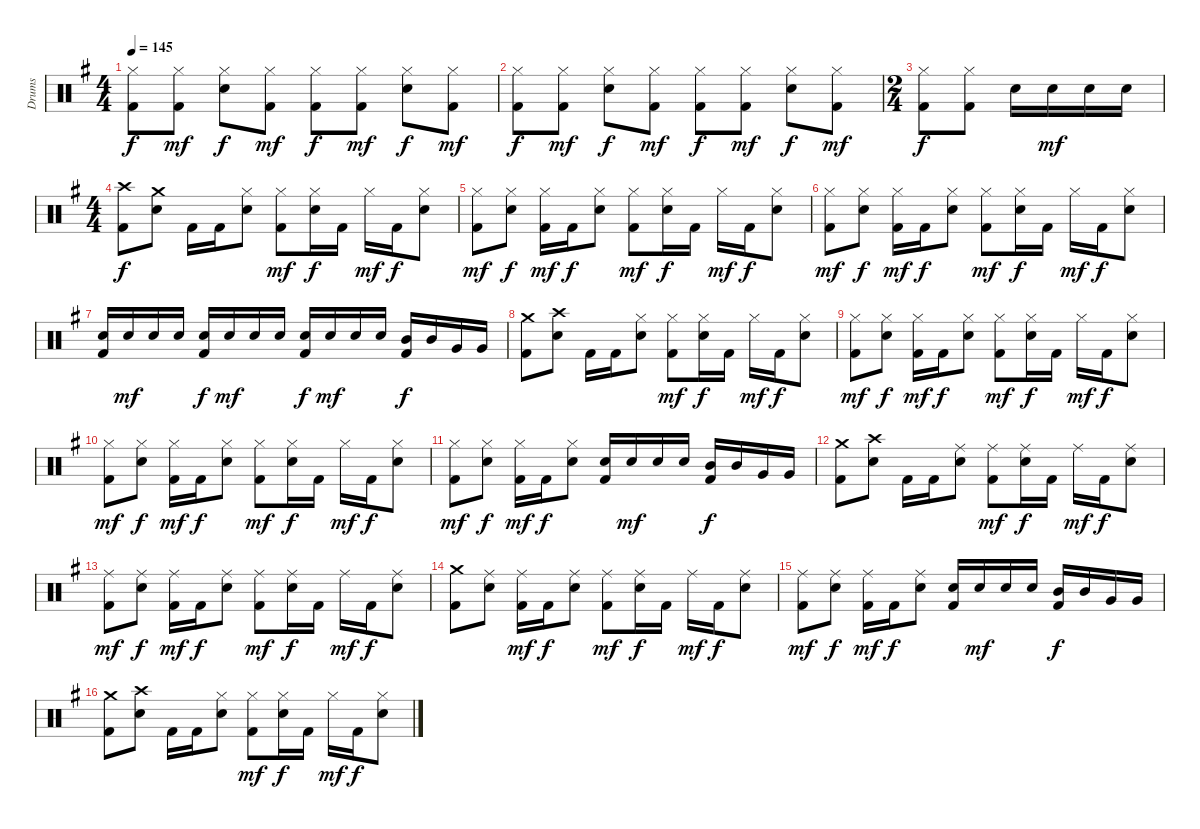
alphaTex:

\track ("Drums" "Drums") {instrument percussion}
\staff {score}
\articulation defaults
\ts (4 4)
\tempo 145
\clef neutral
\ks eminor
("Hi-Hat (closed)" "Kick (hit) 2").8{dy f} ("Hi-Hat (closed)" "Kick (hit) 2").8{dy mf} ("Hi-Hat (closed)" "Electric Snare (hit)").8{dy f} ("Hi-Hat (closed)" "Kick (hit) 2").8{dy mf} ("Hi-Hat (closed)" "Kick (hit) 2").8{dy f} ("Hi-Hat (closed)" "Kick (hit) 2").8{dy mf} ("Hi-Hat (closed)" "Electric Snare (hit)").8{dy f} ("Hi-Hat (closed)" "Kick (hit) 2").8{dy mf} |
("Hi-Hat (closed)" "Kick (hit) 2").8{dy f} ("Hi-Hat (closed)" "Kick (hit) 2").8{dy mf} ("Hi-Hat (closed)" "Electric Snare (hit)").8{dy f} ("Hi-Hat (closed)" "Kick (hit) 2").8{dy mf} ("Hi-Hat (closed)" "Kick (hit) 2").8{dy f} ("Hi-Hat (closed)" "Kick (hit) 2").8{dy mf} ("Hi-Hat (closed)" "Electric Snare (hit)").8{dy f} ("Hi-Hat (closed)" "Kick (hit) 2").8{dy mf} |
\ts (2 4)
("Hi-Hat (closed)" "Kick (hit) 2").8{dy f} ("Hi-Hat (closed)" "Kick (hit) 2").8 "Electric Snare (hit)".16 "Electric Snare (hit)".16{dy mf} "Electric Snare (hit)".16 "Electric Snare (hit)".16 |
\ts (4 4)
("Crash high (hit)" "Kick (hit) 2").8{dy f} ("Crash medium (hit)" "Electric Snare (hit)").8 "Kick (hit) 2".16 "Kick (hit) 2".16 ("Hi-Hat (closed)" "Electric Snare (hit)").8 ("Hi-Hat (closed)" "Kick (hit) 2").8{dy mf} ("Hi-Hat (closed)" "Electric Snare (hit)").16{dy f} "Kick (hit) 2".16 "Hi-Hat (closed)".16{dy mf} "Kick (hit) 2".16{dy f} ("Hi-Hat (closed)" "Electric Snare (hit)").8 |
("Hi-Hat (closed)" "Kick (hit) 2").8{dy mf} ("Hi-Hat (closed)" "Electric Snare (hit)").8{dy f} ("Hi-Hat (closed)" "Kick (hit) 2").16{dy mf} "Kick (hit) 2".16{dy f} ("Hi-Hat (closed)" "Electric Snare (hit)").8 ("Hi-Hat (closed)" "Kick (hit) 2").8{dy mf} ("Hi-Hat (closed)" "Electric Snare (hit)").16{dy f} "Kick (hit) 2".16 "Hi-Hat (closed)".16{dy mf} "Kick (hit) 2".16{dy f} ("Hi-Hat (closed)" "Electric Snare (hit)").8 |
("Hi-Hat (closed)" "Kick (hit) 2").8{dy mf} ("Hi-Hat (closed)" "Electric Snare (hit)").8{dy f} ("Hi-Hat (closed)" "Kick (hit) 2").16{dy mf} "Kick (hit) 2".16{dy f} ("Hi-Hat (closed)" "Electric Snare (hit)").8 ("Hi-Hat (closed)" "Kick (hit) 2").8{dy mf} ("Hi-Hat (closed)" "Electric Snare (hit)").16{dy f} "Kick (hit) 2".16 "Hi-Hat (closed)".16{dy mf} "Kick (hit) 2".16{dy f} ("Hi-Hat (closed)" "Electric Snare (hit)").8 |
("Electric Snare (hit)" "Kick (hit) 2").16 "Electric Snare (hit)".16{dy mf} "Electric Snare (hit)".16 "Electric Snare (hit)".16 ("Electric Snare (hit)" "Kick (hit) 2").16{dy f} "Electric Snare (hit)".16{dy mf} "Electric Snare (hit)".16 "Electric Snare (hit)".16 ("Electric Snare (hit)" "Kick (hit) 2").16{dy f} "Electric Snare (hit)".16{dy mf} "Electric Snare (hit)".16 "Electric Snare (hit)".16 ("Mid Tom (hit)" "Kick (hit) 2").16{dy f} "Mid Tom (hit)".16 "Very Low Tom (hit)".16 "Very Low Tom (hit)".16 |
("Crash medium (hit)" "Kick (hit) 2").8 ("Crash high (hit)" "Electric Snare (hit)").8 "Kick (hit) 2".16 "Kick (hit) 2".16 ("Hi-Hat (closed)" "Electric Snare (hit)").8 ("Hi-Hat (closed)" "Kick (hit) 2").8{dy mf} ("Hi-Hat (closed)" "Electric Snare (hit)").16{dy f} "Kick (hit) 2".16 "Hi-Hat (closed)".16{dy mf} "Kick (hit) 2".16{dy f} ("Hi-Hat (closed)" "Electric Snare (hit)").8 |
("Hi-Hat (closed)" "Kick (hit) 2").8{dy mf} ("Hi-Hat (closed)" "Electric Snare (hit)").8{dy f} ("Hi-Hat (closed)" "Kick (hit) 2").16{dy mf} "Kick (hit) 2".16{dy f} ("Hi-Hat (closed)" "Electric Snare (hit)").8 ("Hi-Hat (closed)" "Kick (hit) 2").8{dy mf} ("Hi-Hat (closed)" "Electric Snare (hit)").16{dy f} "Kick (hit) 2".16 "Hi-Hat (closed)".16{dy mf} "Kick (hit) 2".16{dy f} ("Hi-Hat (closed)" "Electric Snare (hit)").8 |
("Hi-Hat (closed)" "Kick (hit) 2").8{dy mf} ("Hi-Hat (closed)" "Electric Snare (hit)").8{dy f} ("Hi-Hat (closed)" "Kick (hit) 2").16{dy mf} "Kick (hit) 2".16{dy f} ("Hi-Hat (closed)" "Electric Snare (hit)").8 ("Hi-Hat (closed)" "Kick (hit) 2").8{dy mf} ("Hi-Hat (closed)" "Electric Snare (hit)").16{dy f} "Kick (hit) 2".16 "Hi-Hat (closed)".16{dy mf} "Kick (hit) 2".16{dy f} ("Hi-Hat (closed)" "Electric Snare (hit)").8 |
("Hi-Hat (closed)" "Kick (hit) 2").8{dy mf} ("Hi-Hat (closed)" "Electric Snare (hit)").8{dy f} ("Hi-Hat (closed)" "Kick (hit) 2").16{dy mf} "Kick (hit) 2".16{dy f} ("Hi-Hat (closed)" "Electric Snare (hit)").8 ("Electric Snare (hit)" "Kick (hit) 2").16 "Electric Snare (hit)".16{dy mf} "Electric Snare (hit)".16 "Electric Snare (hit)".16 ("Mid Tom (hit)" "Kick (hit) 2").16{dy f} "Mid Tom (hit)".16 "Very Low Tom (hit)".16 "Very Low Tom (hit)".16 |
("Crash medium (hit)" "Kick (hit) 2").8 ("Crash high (hit)" "Electric Snare (hit)").8 "Kick (hit) 2".16 "Kick (hit) 2".16 ("Ride (middle)" "Electric Snare (hit)").8 ("Ride (middle)" "Kick (hit) 2").8{dy mf} ("Ride (middle)" "Electric Snare (hit)").16{dy f} "Kick (hit) 2".16 "Ride (middle)".16{dy mf} "Kick (hit) 2".16{dy f} ("Ride (middle)" "Electric Snare (hit)").8 |
("Ride (middle)" "Kick (hit) 2").8{dy mf} ("Ride (middle)" "Electric Snare (hit)").8{dy f} ("Ride (middle)" "Kick (hit) 2").16{dy mf} "Kick (hit) 2".16{dy f} ("Ride (middle)" "Electric Snare (hit)").8 ("Ride (middle)" "Kick (hit) 2").8{dy mf} ("Ride (middle)" "Electric Snare (hit)").16{dy f} "Kick (hit) 2".16 "Ride (middle)".16{dy mf} "Kick (hit) 2".16{dy f} ("Ride (middle)" "Electric Snare (hit)").8 |
("Crash medium (hit)" "Kick (hit) 2").8 ("Ride (middle)" "Electric Snare (hit)").8 ("Ride (middle)" "Kick (hit) 2").16{dy mf} "Kick (hit) 2".16{dy f} ("Ride (middle)" "Electric Snare (hit)").8 ("Ride (middle)" "Kick (hit) 2").8{dy mf} ("Ride (middle)" "Electric Snare (hit)").16{dy f} "Kick (hit) 2".16 "Ride (middle)".16{dy mf} "Kick (hit) 2".16{dy f} ("Ride (middle)" "Electric Snare (hit)").8 |
("Ride (middle)" "Kick (hit) 2").8{dy mf} ("Ride (middle)" "Electric Snare (hit)").8{dy f} ("Ride (middle)" "Kick (hit) 2").16{dy mf} "Kick (hit) 2".16{dy f} ("Ride (middle)" "Electric Snare (hit)").8 ("Electric Snare (hit)" "Kick (hit) 2").16 "Electric Snare (hit)".16{dy mf} "Electric Snare (hit)".16 "Electric Snare (hit)".16 ("Mid Tom (hit)" "Kick (hit) 2").16{dy f} "Mid Tom (hit)".16 "Very Low Tom (hit)".16 "Very Low Tom (hit)".16 |
("Crash medium (hit)" "Kick (hit) 2").8 ("Crash high (hit)" "Electric Snare (hit)").8 "Kick (hit) 2".16 "Kick (hit) 2".16 ("Hi-Hat (closed)" "Electric Snare (hit)").8 ("Hi-Hat (closed)" "Kick (hit) 2").8{dy mf} ("Hi-Hat (closed)" "Electric Snare (hit)").16{dy f} "Kick (hit) 2".16 "Hi-Hat (closed)".16{dy mf} "Kick (hit) 2".16{dy f} ("Hi-Hat (closed)" "Electric Snare (hit)").8
